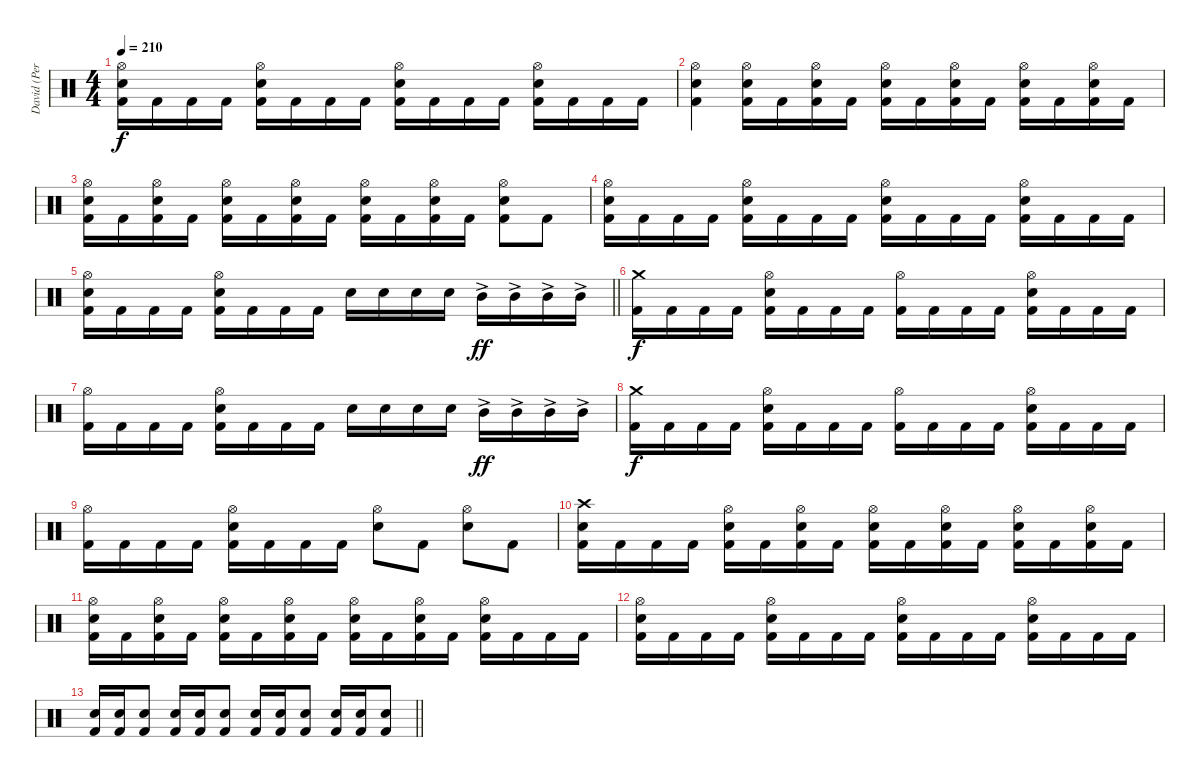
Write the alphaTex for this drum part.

\track ("David (Percussion)" "David (Per") {instrument percussion}
\staff {score}
\articulation defaults
\ts (4 4)
\tempo 210
\clef neutral
\ks c
("Hi-Hat (open)" "Electric Snare (hit)" "Kick (hit) 2").16{dy f} "Kick (hit) 2".16 "Kick (hit) 2".16 "Kick (hit) 2".16 ("Hi-Hat (open)" "Electric Snare (hit)" "Kick (hit) 2").16 "Kick (hit) 2".16 "Kick (hit) 2".16 "Kick (hit) 2".16 ("Hi-Hat (open)" "Electric Snare (hit)" "Kick (hit) 2").16 "Kick (hit) 2".16 "Kick (hit) 2".16 "Kick (hit) 2".16 ("Hi-Hat (open)" "Electric Snare (hit)" "Kick (hit) 2").16 "Kick (hit) 2".16 "Kick (hit) 2".16 "Kick (hit) 2".16 |
("Hi-Hat (open)" "Electric Snare (hit)" "Kick (hit) 2").4 ("Hi-Hat (open)" "Electric Snare (hit)" "Kick (hit) 2").16 "Kick (hit) 2".16 ("Hi-Hat (open)" "Electric Snare (hit)" "Kick (hit) 2").16 "Kick (hit) 2".16 ("Hi-Hat (open)" "Electric Snare (hit)" "Kick (hit) 2").16 "Kick (hit) 2".16 ("Hi-Hat (open)" "Electric Snare (hit)" "Kick (hit) 2").16 "Kick (hit) 2".16 ("Hi-Hat (open)" "Electric Snare (hit)" "Kick (hit) 2").16 "Kick (hit) 2".16 ("Hi-Hat (open)" "Electric Snare (hit)" "Kick (hit) 2").16 "Kick (hit) 2".16 |
("Hi-Hat (open)" "Electric Snare (hit)" "Kick (hit) 2").16 "Kick (hit) 2".16 ("Hi-Hat (open)" "Electric Snare (hit)" "Kick (hit) 2").16 "Kick (hit) 2".16 ("Hi-Hat (open)" "Electric Snare (hit)" "Kick (hit) 2").16 "Kick (hit) 2".16 ("Hi-Hat (open)" "Electric Snare (hit)" "Kick (hit) 2").16 "Kick (hit) 2".16 ("Hi-Hat (open)" "Electric Snare (hit)" "Kick (hit) 2").16 "Kick (hit) 2".16 ("Hi-Hat (open)" "Electric Snare (hit)" "Kick (hit) 2").16 "Kick (hit) 2".16 ("Hi-Hat (open)" "Electric Snare (hit)" "Kick (hit) 2").8 "Kick (hit) 2".8 |
("Hi-Hat (open)" "Electric Snare (hit)" "Kick (hit) 2").16 "Kick (hit) 2".16 "Kick (hit) 2".16 "Kick (hit) 2".16 ("Hi-Hat (open)" "Electric Snare (hit)" "Kick (hit) 2").16 "Kick (hit) 2".16 "Kick (hit) 2".16 "Kick (hit) 2".16 ("Hi-Hat (open)" "Electric Snare (hit)" "Kick (hit) 2").16 "Kick (hit) 2".16 "Kick (hit) 2".16 "Kick (hit) 2".16 ("Hi-Hat (open)" "Electric Snare (hit)" "Kick (hit) 2").16 "Kick (hit) 2".16 "Kick (hit) 2".16 "Kick (hit) 2".16 |
\barLineRight lightlight
("Hi-Hat (open)" "Electric Snare (hit)" "Kick (hit) 2").16 "Kick (hit) 2".16 "Kick (hit) 2".16 "Kick (hit) 2".16 ("Hi-Hat (open)" "Electric Snare (hit)" "Kick (hit) 2").16 "Kick (hit) 2".16 "Kick (hit) 2".16 "Kick (hit) 2".16 "Electric Snare (hit)".16 "Electric Snare (hit)".16 "Electric Snare (hit)".16 "Electric Snare (hit)".16 "Mid Tom (hit)"{ac}.16{dy ff} "Mid Tom (hit)"{ac}.16 "Mid Tom (hit)"{ac}.16 "Mid Tom (hit)"{ac}.16 |
("Crash medium (hit)" "Kick (hit) 2").16{dy f} "Kick (hit) 2".16 "Kick (hit) 2".16 "Kick (hit) 2".16 ("Hi-Hat (open)" "Electric Snare (hit)" "Kick (hit) 2").16 "Kick (hit) 2".16 "Kick (hit) 2".16 "Kick (hit) 2".16 ("Hi-Hat (open)" "Kick (hit) 2").16 "Kick (hit) 2".16 "Kick (hit) 2".16 "Kick (hit) 2".16 ("Hi-Hat (open)" "Electric Snare (hit)" "Kick (hit) 2").16 "Kick (hit) 2".16 "Kick (hit) 2".16 "Kick (hit) 2".16 |
("Hi-Hat (open)" "Kick (hit) 2").16 "Kick (hit) 2".16 "Kick (hit) 2".16 "Kick (hit) 2".16 ("Hi-Hat (open)" "Electric Snare (hit)" "Kick (hit) 2").16 "Kick (hit) 2".16 "Kick (hit) 2".16 "Kick (hit) 2".16 "Electric Snare (hit)".16 "Electric Snare (hit)".16 "Electric Snare (hit)".16 "Electric Snare (hit)".16 "Mid Tom (hit)"{ac}.16{dy ff} "Mid Tom (hit)"{ac}.16 "Mid Tom (hit)"{ac}.16 "Mid Tom (hit)"{ac}.16 |
("Crash medium (hit)" "Kick (hit) 2").16{dy f} "Kick (hit) 2".16 "Kick (hit) 2".16 "Kick (hit) 2".16 ("Hi-Hat (open)" "Electric Snare (hit)" "Kick (hit) 2").16 "Kick (hit) 2".16 "Kick (hit) 2".16 "Kick (hit) 2".16 ("Hi-Hat (open)" "Kick (hit) 2").16 "Kick (hit) 2".16 "Kick (hit) 2".16 "Kick (hit) 2".16 ("Hi-Hat (open)" "Electric Snare (hit)" "Kick (hit) 2").16 "Kick (hit) 2".16 "Kick (hit) 2".16 "Kick (hit) 2".16 |
("Hi-Hat (open)" "Kick (hit) 2").16 "Kick (hit) 2".16 "Kick (hit) 2".16 "Kick (hit) 2".16 ("Hi-Hat (open)" "Electric Snare (hit)" "Kick (hit) 2").16 "Kick (hit) 2".16 "Kick (hit) 2".16 "Kick (hit) 2".16 ("Hi-Hat (open)" "Electric Snare (hit)").8 "Kick (hit) 2".8 ("Hi-Hat (open)" "Electric Snare (hit)").8 "Kick (hit) 2".8 |
("Crash high (hit)" "Electric Snare (hit)" "Kick (hit) 2").16 "Kick (hit) 2".16 "Kick (hit) 2".16 "Kick (hit) 2".16 ("Hi-Hat (open)" "Electric Snare (hit)" "Kick (hit) 2").16 "Kick (hit) 2".16 ("Hi-Hat (open)" "Electric Snare (hit)" "Kick (hit) 2").16 "Kick (hit) 2".16 ("Hi-Hat (open)" "Electric Snare (hit)" "Kick (hit) 2").16 "Kick (hit) 2".16 ("Hi-Hat (open)" "Electric Snare (hit)" "Kick (hit) 2").16 "Kick (hit) 2".16 ("Hi-Hat (open)" "Electric Snare (hit)" "Kick (hit) 2").16 "Kick (hit) 2".16 ("Hi-Hat (open)" "Electric Snare (hit)" "Kick (hit) 2").16 "Kick (hit) 2".16 |
("Hi-Hat (open)" "Electric Snare (hit)" "Kick (hit) 2").16 "Kick (hit) 2".16 ("Hi-Hat (open)" "Electric Snare (hit)" "Kick (hit) 2").16 "Kick (hit) 2".16 ("Hi-Hat (open)" "Electric Snare (hit)" "Kick (hit) 2").16 "Kick (hit) 2".16 ("Hi-Hat (open)" "Electric Snare (hit)" "Kick (hit) 2").16 "Kick (hit) 2".16 ("Hi-Hat (open)" "Electric Snare (hit)" "Kick (hit) 2").16 "Kick (hit) 2".16 ("Hi-Hat (open)" "Electric Snare (hit)" "Kick (hit) 2").16 "Kick (hit) 2".16 ("Hi-Hat (open)" "Electric Snare (hit)" "Kick (hit) 2").16 "Kick (hit) 2".16 "Kick (hit) 2".16 "Kick (hit) 2".16 |
("Hi-Hat (open)" "Electric Snare (hit)" "Kick (hit) 2").16 "Kick (hit) 2".16 "Kick (hit) 2".16 "Kick (hit) 2".16 ("Hi-Hat (open)" "Electric Snare (hit)" "Kick (hit) 2").16 "Kick (hit) 2".16 "Kick (hit) 2".16 "Kick (hit) 2".16 ("Hi-Hat (open)" "Electric Snare (hit)" "Kick (hit) 2").16 "Kick (hit) 2".16 "Kick (hit) 2".16 "Kick (hit) 2".16 ("Hi-Hat (open)" "Electric Snare (hit)" "Kick (hit) 2").16 "Kick (hit) 2".16 "Kick (hit) 2".16 "Kick (hit) 2".16 |
\barLineRight lightlight
("Electric Snare (hit)" "Kick (hit) 2").16 ("Electric Snare (hit)" "Kick (hit) 2").16 ("Electric Snare (hit)" "Kick (hit) 2").8 ("Electric Snare (hit)" "Kick (hit) 2").16 ("Electric Snare (hit)" "Kick (hit) 2").16 ("Electric Snare (hit)" "Kick (hit) 2").8 ("Electric Snare (hit)" "Kick (hit) 2").16 ("Electric Snare (hit)" "Kick (hit) 2").16 ("Electric Snare (hit)" "Kick (hit) 2").8 ("Electric Snare (hit)" "Kick (hit) 2").16 ("Electric Snare (hit)" "Kick (hit) 2").16 ("Electric Snare (hit)" "Kick (hit) 2").8
